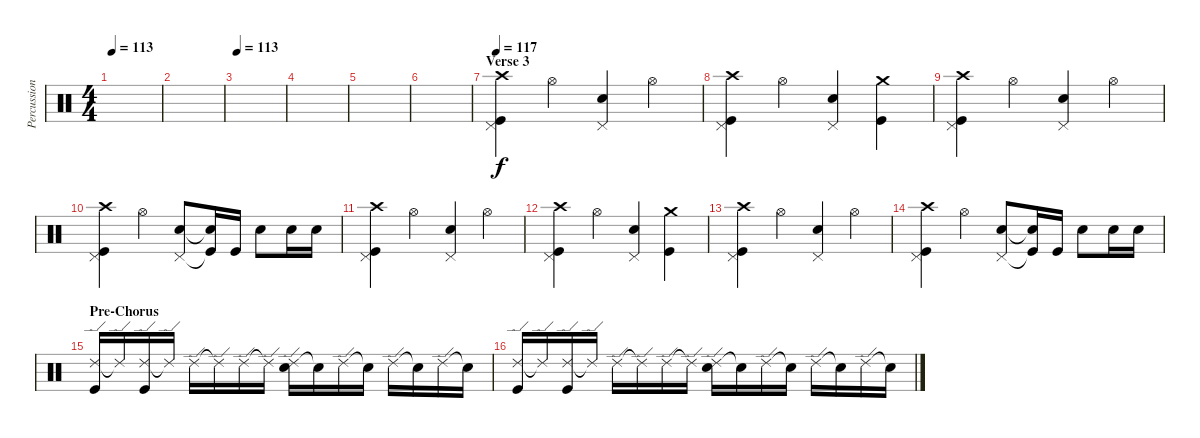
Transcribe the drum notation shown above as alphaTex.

\track ("Percussions" "Percussion") {instrument percussion}
\staff {score}
\articulation defaults
\ts (4 4)
\tempo 113
\clef neutral
\ks c
|
|
\tempo 113
|
|
|
|
\section ("" "Verse 3")
\tempo 117
("Crash high (hit)" "Kick (hit)" "Pedal Hi-Hat (hit)").4 "Hi-Hat (open)".4 ("Pedal Hi-Hat (hit)" "Electric Snare (hit)").4 "Hi-Hat (open)".4 |
("Crash high (hit)" "Kick (hit)" "Pedal Hi-Hat (hit)").4 "Hi-Hat (open)".4 ("Pedal Hi-Hat (hit)" "Electric Snare (hit)").4 ("Crash medium (hit)" "Kick (hit)").4 |
("Crash high (hit)" "Kick (hit)" "Pedal Hi-Hat (hit)").4 "Hi-Hat (open)".4 ("Pedal Hi-Hat (hit)" "Electric Snare (hit)").4 "Hi-Hat (open)".4 |
("Crash high (hit)" "Kick (hit)" "Pedal Hi-Hat (hit)").4 "Hi-Hat (open)".4 ("Pedal Hi-Hat (hit)" "Electric Snare (hit)").8 ("Kick (hit)"{t} "Snare (hit)"{t}).16 "Kick (hit)".16 "Electric Snare (hit)".8 "Electric Snare (hit)".16 "Electric Snare (hit)".16 |
("Crash high (hit)" "Kick (hit)" "Pedal Hi-Hat (hit)").4 "Hi-Hat (open)".4 ("Pedal Hi-Hat (hit)" "Electric Snare (hit)").4 "Hi-Hat (open)".4 |
("Crash high (hit)" "Kick (hit)" "Pedal Hi-Hat (hit)").4 "Hi-Hat (open)".4 ("Pedal Hi-Hat (hit)" "Electric Snare (hit)").4 ("Crash medium (hit)" "Kick (hit)").4 |
("Crash high (hit)" "Kick (hit)" "Pedal Hi-Hat (hit)").4 "Hi-Hat (open)".4 ("Pedal Hi-Hat (hit)" "Electric Snare (hit)").4 "Hi-Hat (open)".4 |
("Crash high (hit)" "Kick (hit)" "Pedal Hi-Hat (hit)").4 "Hi-Hat (open)".4 ("Pedal Hi-Hat (hit)" "Electric Snare (hit)").8 ("Kick (hit)"{t} "Snare (hit)"{t}).16 "Kick (hit)".16 "Electric Snare (hit)".8 "Electric Snare (hit)".16 "Electric Snare (hit)".16 |
\section ("" "Pre-Chorus")
("Ride (edge) 2" "Kick (hit)").16 "Ride (edge) 2"{t}.16 ("Ride (edge) 2" "Kick (hit)").16 "Ride (edge) 2"{t}.16 "Ride (edge) 2".16 "Ride (edge) 2"{t}.16 "Ride (edge) 2".16 "Ride (edge) 2"{t}.16 ("Ride (edge) 2" "Electric Snare (hit)").16 "Snare (hit)"{t}.16 "Ride (edge) 2".16 "Snare (hit)"{t}.16 "Ride (edge) 2".16 "Snare (hit)"{t}.16 "Ride (edge) 2".16 "Snare (hit)"{t}.16 |
("Ride (edge) 2" "Kick (hit)").16 "Ride (edge) 2"{t}.16 ("Ride (edge) 2" "Kick (hit)").16 "Ride (edge) 2"{t}.16 "Ride (edge) 2".16 "Ride (edge) 2"{t}.16 "Ride (edge) 2".16 "Ride (edge) 2"{t}.16 ("Ride (edge) 2" "Electric Snare (hit)").16 "Snare (hit)"{t}.16 "Ride (edge) 2".16 "Snare (hit)"{t}.16 "Ride (edge) 2".16 "Snare (hit)"{t}.16 "Ride (edge) 2".16 "Snare (hit)"{t}.16
